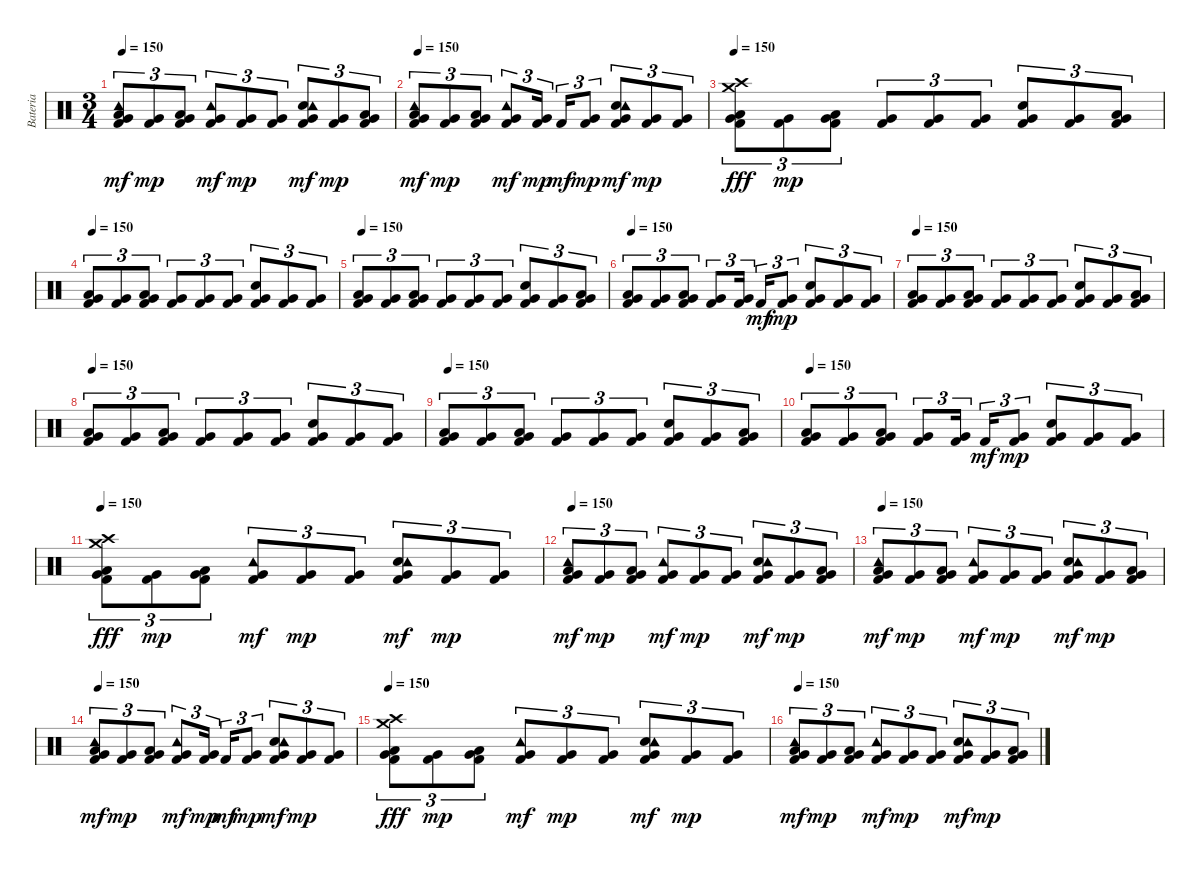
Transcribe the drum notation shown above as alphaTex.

\track ("Bateria" "Bateria") {instrument percussion}
\staff {score}
\articulation defaults
\ts (3 4)
\tempo 150
\clef neutral
\ks c
("Low Floor Tom (hit)" "Very Low Tom (hit)" "Kick (hit) 2" "Tambourine (hit)").8{tu (3 2) dy mf} ("Very Low Tom (hit)" "Kick (hit) 2").8{tu (3 2) dy mp} ("Low Floor Tom (hit)" "Very Low Tom (hit)" "Kick (hit) 2").8{tu (3 2)} ("Very Low Tom (hit)" "Kick (hit) 2" "Tambourine (hit)").8{tu (3 2) dy mf} ("Very Low Tom (hit)" "Kick (hit) 2").8{tu (3 2) dy mp} ("Very Low Tom (hit)" "Kick (hit) 2").8{tu (3 2)} ("Electric Snare (hit)" "Very Low Tom (hit)" "Kick (hit) 2" "Tambourine (hit)").8{tu (3 2) dy mf} ("Very Low Tom (hit)" "Kick (hit) 2").8{tu (3 2) dy mp} ("Low Floor Tom (hit)" "Very Low Tom (hit)" "Kick (hit) 2").8{tu (3 2)} |
\tempo 150
("Low Floor Tom (hit)" "Very Low Tom (hit)" "Kick (hit) 2" "Tambourine (hit)").8{tu (3 2) dy mf} ("Very Low Tom (hit)" "Kick (hit) 2").8{tu (3 2) dy mp} ("Low Floor Tom (hit)" "Very Low Tom (hit)" "Kick (hit) 2").8{tu (3 2)} ("Very Low Tom (hit)" "Kick (hit) 2" "Tambourine (hit)").8{tu (3 2) dy mf} ("Very Low Tom (hit)" "Kick (hit) 2").16{tu (3 2) dy mp beam splitsecondary} "Kick (hit) 2".16{tu (3 2) dy mf} ("Very Low Tom (hit)" "Kick (hit) 2").8{tu (3 2) dy mp} ("Electric Snare (hit)" "Very Low Tom (hit)" "Kick (hit) 2" "Tambourine (hit)").8{tu (3 2) dy mf} ("Very Low Tom (hit)" "Kick (hit) 2").8{tu (3 2) dy mp} ("Very Low Tom (hit)" "Kick (hit) 2").8{tu (3 2)} |
\tempo 150
("Low Floor Tom (hit)" "Very Low Tom (hit)" "Kick (hit) 2" "Crash medium (hit)" "Crash high (hit)").8{tu (3 2) dy fff} ("Very Low Tom (hit)" "Kick (hit) 2").8{tu (3 2) dy mp} ("Low Floor Tom (hit)" "Very Low Tom (hit)" "Kick (hit) 2").8{tu (3 2)} ("Very Low Tom (hit)" "Kick (hit) 2").8{tu (3 2)} ("Very Low Tom (hit)" "Kick (hit) 2").8{tu (3 2)} ("Very Low Tom (hit)" "Kick (hit) 2").8{tu (3 2)} ("Electric Snare (hit)" "Very Low Tom (hit)" "Kick (hit) 2").8{tu (3 2)} ("Very Low Tom (hit)" "Kick (hit) 2").8{tu (3 2)} ("Low Floor Tom (hit)" "Very Low Tom (hit)" "Kick (hit) 2").8{tu (3 2)} |
\tempo 150
("Low Floor Tom (hit)" "Very Low Tom (hit)" "Kick (hit) 2").8{tu (3 2)} ("Very Low Tom (hit)" "Kick (hit) 2").8{tu (3 2)} ("Low Floor Tom (hit)" "Very Low Tom (hit)" "Kick (hit) 2").8{tu (3 2)} ("Very Low Tom (hit)" "Kick (hit) 2").8{tu (3 2)} ("Very Low Tom (hit)" "Kick (hit) 2").8{tu (3 2)} ("Very Low Tom (hit)" "Kick (hit) 2").8{tu (3 2)} ("Electric Snare (hit)" "Very Low Tom (hit)" "Kick (hit) 2").8{tu (3 2)} ("Very Low Tom (hit)" "Kick (hit) 2").8{tu (3 2)} ("Very Low Tom (hit)" "Kick (hit) 2").8{tu (3 2)} |
\tempo 150
("Low Floor Tom (hit)" "Very Low Tom (hit)" "Kick (hit) 2").8{tu (3 2)} ("Very Low Tom (hit)" "Kick (hit) 2").8{tu (3 2)} ("Low Floor Tom (hit)" "Very Low Tom (hit)" "Kick (hit) 2").8{tu (3 2)} ("Very Low Tom (hit)" "Kick (hit) 2").8{tu (3 2)} ("Very Low Tom (hit)" "Kick (hit) 2").8{tu (3 2)} ("Very Low Tom (hit)" "Kick (hit) 2").8{tu (3 2)} ("Electric Snare (hit)" "Very Low Tom (hit)" "Kick (hit) 2").8{tu (3 2)} ("Very Low Tom (hit)" "Kick (hit) 2").8{tu (3 2)} ("Low Floor Tom (hit)" "Very Low Tom (hit)" "Kick (hit) 2").8{tu (3 2)} |
\tempo 150
("Low Floor Tom (hit)" "Very Low Tom (hit)" "Kick (hit) 2").8{tu (3 2)} ("Very Low Tom (hit)" "Kick (hit) 2").8{tu (3 2)} ("Low Floor Tom (hit)" "Very Low Tom (hit)" "Kick (hit) 2").8{tu (3 2)} ("Very Low Tom (hit)" "Kick (hit) 2").8{tu (3 2)} ("Very Low Tom (hit)" "Kick (hit) 2").16{tu (3 2) beam splitsecondary} "Kick (hit) 2".16{tu (3 2) dy mf} ("Very Low Tom (hit)" "Kick (hit) 2").8{tu (3 2) dy mp} ("Electric Snare (hit)" "Very Low Tom (hit)" "Kick (hit) 2").8{tu (3 2)} ("Very Low Tom (hit)" "Kick (hit) 2").8{tu (3 2)} ("Very Low Tom (hit)" "Kick (hit) 2").8{tu (3 2)} |
\tempo 150
("Low Floor Tom (hit)" "Very Low Tom (hit)" "Kick (hit) 2").8{tu (3 2)} ("Very Low Tom (hit)" "Kick (hit) 2").8{tu (3 2)} ("Low Floor Tom (hit)" "Very Low Tom (hit)" "Kick (hit) 2").8{tu (3 2)} ("Very Low Tom (hit)" "Kick (hit) 2").8{tu (3 2)} ("Very Low Tom (hit)" "Kick (hit) 2").8{tu (3 2)} ("Very Low Tom (hit)" "Kick (hit) 2").8{tu (3 2)} ("Electric Snare (hit)" "Very Low Tom (hit)" "Kick (hit) 2").8{tu (3 2)} ("Very Low Tom (hit)" "Kick (hit) 2").8{tu (3 2)} ("Low Floor Tom (hit)" "Very Low Tom (hit)" "Kick (hit) 2").8{tu (3 2)} |
\tempo 150
("Low Floor Tom (hit)" "Very Low Tom (hit)" "Kick (hit) 2").8{tu (3 2)} ("Very Low Tom (hit)" "Kick (hit) 2").8{tu (3 2)} ("Low Floor Tom (hit)" "Very Low Tom (hit)" "Kick (hit) 2").8{tu (3 2)} ("Very Low Tom (hit)" "Kick (hit) 2").8{tu (3 2)} ("Very Low Tom (hit)" "Kick (hit) 2").8{tu (3 2)} ("Very Low Tom (hit)" "Kick (hit) 2").8{tu (3 2)} ("Electric Snare (hit)" "Very Low Tom (hit)" "Kick (hit) 2").8{tu (3 2)} ("Very Low Tom (hit)" "Kick (hit) 2").8{tu (3 2)} ("Very Low Tom (hit)" "Kick (hit) 2").8{tu (3 2)} |
\tempo 150
("Low Floor Tom (hit)" "Very Low Tom (hit)" "Kick (hit) 2").8{tu (3 2)} ("Very Low Tom (hit)" "Kick (hit) 2").8{tu (3 2)} ("Low Floor Tom (hit)" "Very Low Tom (hit)" "Kick (hit) 2").8{tu (3 2)} ("Very Low Tom (hit)" "Kick (hit) 2").8{tu (3 2)} ("Very Low Tom (hit)" "Kick (hit) 2").8{tu (3 2)} ("Very Low Tom (hit)" "Kick (hit) 2").8{tu (3 2)} ("Electric Snare (hit)" "Very Low Tom (hit)" "Kick (hit) 2").8{tu (3 2)} ("Very Low Tom (hit)" "Kick (hit) 2").8{tu (3 2)} ("Low Floor Tom (hit)" "Very Low Tom (hit)" "Kick (hit) 2").8{tu (3 2)} |
\tempo 150
("Low Floor Tom (hit)" "Very Low Tom (hit)" "Kick (hit) 2").8{tu (3 2)} ("Very Low Tom (hit)" "Kick (hit) 2").8{tu (3 2)} ("Low Floor Tom (hit)" "Very Low Tom (hit)" "Kick (hit) 2").8{tu (3 2)} ("Very Low Tom (hit)" "Kick (hit) 2").8{tu (3 2)} ("Very Low Tom (hit)" "Kick (hit) 2").16{tu (3 2) beam splitsecondary} "Kick (hit) 2".16{tu (3 2) dy mf} ("Very Low Tom (hit)" "Kick (hit) 2").8{tu (3 2) dy mp} ("Electric Snare (hit)" "Very Low Tom (hit)" "Kick (hit) 2").8{tu (3 2)} ("Very Low Tom (hit)" "Kick (hit) 2").8{tu (3 2)} ("Very Low Tom (hit)" "Kick (hit) 2").8{tu (3 2)} |
\tempo 150
("Low Floor Tom (hit)" "Very Low Tom (hit)" "Kick (hit) 2" "Crash high (hit)" "Crash medium (hit)").8{tu (3 2) dy fff} ("Very Low Tom (hit)" "Kick (hit) 2").8{tu (3 2) dy mp} ("Low Floor Tom (hit)" "Very Low Tom (hit)" "Kick (hit) 2").8{tu (3 2)} ("Very Low Tom (hit)" "Kick (hit) 2" "Tambourine (hit)").8{tu (3 2) dy mf} ("Very Low Tom (hit)" "Kick (hit) 2").8{tu (3 2) dy mp} ("Very Low Tom (hit)" "Kick (hit) 2").8{tu (3 2)} ("Electric Snare (hit)" "Very Low Tom (hit)" "Kick (hit) 2" "Tambourine (hit)").8{tu (3 2) dy mf} ("Very Low Tom (hit)" "Kick (hit) 2").8{tu (3 2) dy mp} ("Very Low Tom (hit)" "Kick (hit) 2").8{tu (3 2)} |
\tempo 150
("Low Floor Tom (hit)" "Very Low Tom (hit)" "Kick (hit) 2" "Tambourine (hit)").8{tu (3 2) dy mf} ("Very Low Tom (hit)" "Kick (hit) 2").8{tu (3 2) dy mp} ("Low Floor Tom (hit)" "Very Low Tom (hit)" "Kick (hit) 2").8{tu (3 2)} ("Very Low Tom (hit)" "Kick (hit) 2" "Tambourine (hit)").8{tu (3 2) dy mf} ("Very Low Tom (hit)" "Kick (hit) 2").8{tu (3 2) dy mp} ("Very Low Tom (hit)" "Kick (hit) 2").8{tu (3 2)} ("Electric Snare (hit)" "Very Low Tom (hit)" "Kick (hit) 2" "Tambourine (hit)").8{tu (3 2) dy mf} ("Very Low Tom (hit)" "Kick (hit) 2").8{tu (3 2) dy mp} ("Low Floor Tom (hit)" "Very Low Tom (hit)" "Kick (hit) 2").8{tu (3 2)} |
\tempo 150
("Low Floor Tom (hit)" "Very Low Tom (hit)" "Kick (hit) 2" "Tambourine (hit)").8{tu (3 2) dy mf} ("Very Low Tom (hit)" "Kick (hit) 2").8{tu (3 2) dy mp} ("Low Floor Tom (hit)" "Very Low Tom (hit)" "Kick (hit) 2").8{tu (3 2)} ("Very Low Tom (hit)" "Kick (hit) 2" "Tambourine (hit)").8{tu (3 2) dy mf} ("Very Low Tom (hit)" "Kick (hit) 2").8{tu (3 2) dy mp} ("Very Low Tom (hit)" "Kick (hit) 2").8{tu (3 2)} ("Electric Snare (hit)" "Very Low Tom (hit)" "Kick (hit) 2" "Tambourine (hit)").8{tu (3 2) dy mf} ("Very Low Tom (hit)" "Kick (hit) 2").8{tu (3 2) dy mp} ("Low Floor Tom (hit)" "Very Low Tom (hit)" "Kick (hit) 2").8{tu (3 2)} |
\tempo 150
("Low Floor Tom (hit)" "Very Low Tom (hit)" "Kick (hit) 2" "Tambourine (hit)").8{tu (3 2) dy mf} ("Very Low Tom (hit)" "Kick (hit) 2").8{tu (3 2) dy mp} ("Low Floor Tom (hit)" "Very Low Tom (hit)" "Kick (hit) 2").8{tu (3 2)} ("Very Low Tom (hit)" "Kick (hit) 2" "Tambourine (hit)").8{tu (3 2) dy mf} ("Very Low Tom (hit)" "Kick (hit) 2").16{tu (3 2) dy mp beam splitsecondary} "Kick (hit) 2".16{tu (3 2) dy mf} ("Very Low Tom (hit)" "Kick (hit) 2").8{tu (3 2) dy mp} ("Electric Snare (hit)" "Very Low Tom (hit)" "Kick (hit) 2" "Tambourine (hit)").8{tu (3 2) dy mf} ("Very Low Tom (hit)" "Kick (hit) 2").8{tu (3 2) dy mp} ("Very Low Tom (hit)" "Kick (hit) 2").8{tu (3 2)} |
\tempo 150
("Low Floor Tom (hit)" "Very Low Tom (hit)" "Kick (hit) 2" "Crash high (hit)" "Crash medium (hit)").8{tu (3 2) dy fff} ("Very Low Tom (hit)" "Kick (hit) 2").8{tu (3 2) dy mp} ("Low Floor Tom (hit)" "Very Low Tom (hit)" "Kick (hit) 2").8{tu (3 2)} ("Very Low Tom (hit)" "Kick (hit) 2" "Tambourine (hit)").8{tu (3 2) dy mf} ("Very Low Tom (hit)" "Kick (hit) 2").8{tu (3 2) dy mp} ("Very Low Tom (hit)" "Kick (hit) 2").8{tu (3 2)} ("Electric Snare (hit)" "Very Low Tom (hit)" "Kick (hit) 2" "Tambourine (hit)").8{tu (3 2) dy mf} ("Very Low Tom (hit)" "Kick (hit) 2").8{tu (3 2) dy mp} ("Very Low Tom (hit)" "Kick (hit) 2").8{tu (3 2)} |
\tempo 150
("Low Floor Tom (hit)" "Very Low Tom (hit)" "Kick (hit) 2" "Tambourine (hit)").8{tu (3 2) dy mf} ("Very Low Tom (hit)" "Kick (hit) 2").8{tu (3 2) dy mp} ("Low Floor Tom (hit)" "Very Low Tom (hit)" "Kick (hit) 2").8{tu (3 2)} ("Very Low Tom (hit)" "Kick (hit) 2" "Tambourine (hit)").8{tu (3 2) dy mf} ("Very Low Tom (hit)" "Kick (hit) 2").8{tu (3 2) dy mp} ("Very Low Tom (hit)" "Kick (hit) 2").8{tu (3 2)} ("Electric Snare (hit)" "Very Low Tom (hit)" "Kick (hit) 2" "Tambourine (hit)").8{tu (3 2) dy mf} ("Very Low Tom (hit)" "Kick (hit) 2").8{tu (3 2) dy mp} ("Low Floor Tom (hit)" "Very Low Tom (hit)" "Kick (hit) 2").8{tu (3 2)}
